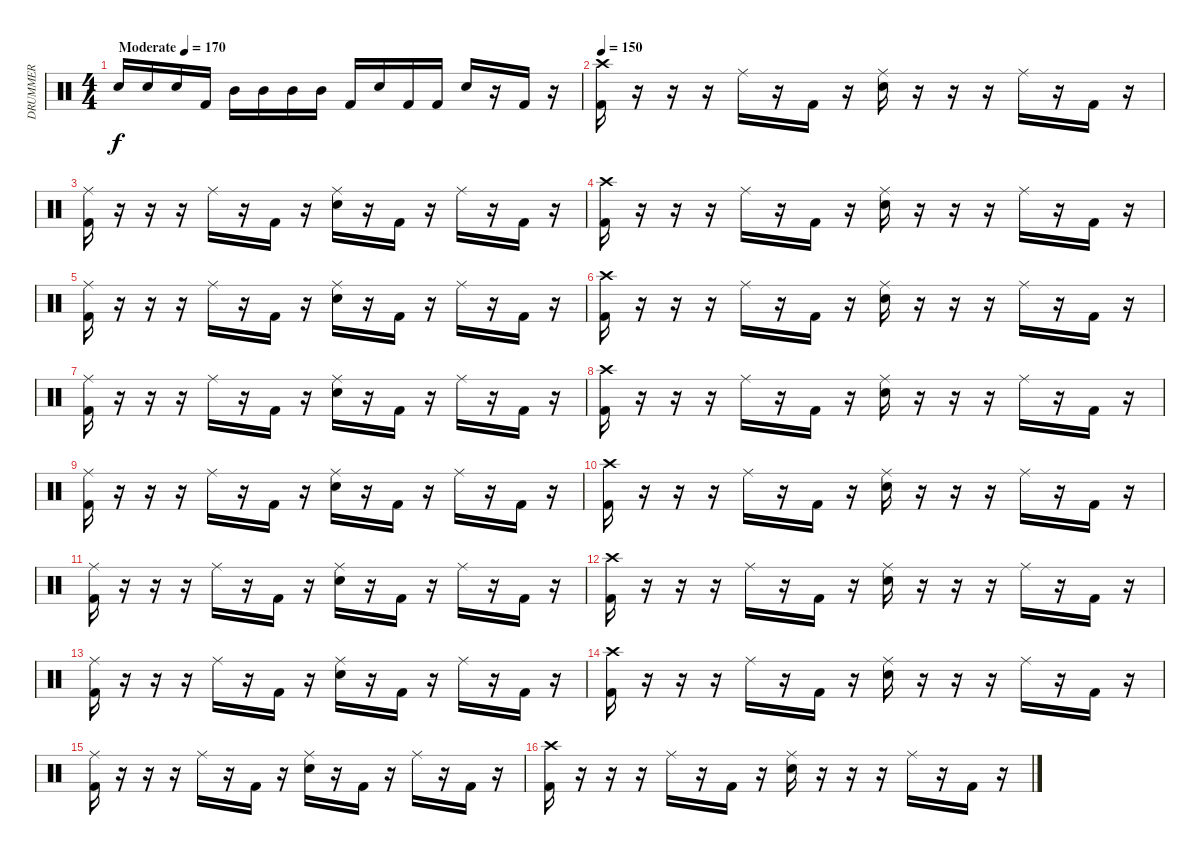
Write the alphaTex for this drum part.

\track ("DRUMMER" "DRUMMER") {instrument percussion}
\staff {score}
\articulation defaults
\ts (4 4)
\tempo (170 "Moderate")
\clef neutral
\ks c "Electric Snare (hit)".16{dy f} "Electric Snare (hit)".16 "Electric Snare (hit)".16 "Kick (hit) 2".16 "Mid Tom (hit)".16 "Mid Tom (hit)".16 "Mid Tom (hit)".16 "Mid Tom (hit)".16 "Kick (hit) 2".16 "Electric Snare (hit)".16 "Kick (hit) 2".16 "Kick (hit) 2".16 "Electric Snare (hit)".16
r.16 "Kick (hit) 2".16 r.16 |
\tempo 150
("Crash high (hit)" "Kick (hit) 2").16 r.16 r.16 r.16 "Ride (middle)".16 r.16 "Kick (hit) 2".16 r.16 ("Ride (middle)" "Electric Snare (hit)").16 r.16 r.16 r.16 "Ride (middle)".16 r.16 "Kick (hit) 2".16 r.16 |
("Ride (middle)" "Kick (hit) 2").16 r.16 r.16 r.16 "Ride (middle)".16 r.16 "Kick (hit) 2".16 r.16 ("Ride (middle)" "Electric Snare (hit)").16 r.16 "Kick (hit) 2".16 r.16 "Ride (middle)".16 r.16 "Kick (hit) 2".16 r.16 |
("Crash high (hit)" "Kick (hit) 2").16 r.16 r.16 r.16 "Ride (middle)".16 r.16 "Kick (hit) 2".16 r.16 ("Ride (middle)" "Electric Snare (hit)").16 r.16 r.16 r.16 "Ride (middle)".16 r.16 "Kick (hit) 2".16 r.16 |
("Ride (middle)" "Kick (hit) 2").16 r.16 r.16 r.16 "Ride (middle)".16 r.16 "Kick (hit) 2".16 r.16 ("Ride (middle)" "Electric Snare (hit)").16 r.16 "Kick (hit) 2".16 r.16 "Ride (middle)".16 r.16 "Kick (hit) 2".16 r.16 |
("Crash high (hit)" "Kick (hit) 2").16 r.16 r.16 r.16 "Ride (middle)".16 r.16 "Kick (hit) 2".16 r.16 ("Ride (middle)" "Electric Snare (hit)").16 r.16 r.16 r.16 "Ride (middle)".16 r.16 "Kick (hit) 2".16 r.16 |
("Ride (middle)" "Kick (hit) 2").16 r.16 r.16 r.16 "Ride (middle)".16 r.16 "Kick (hit) 2".16 r.16 ("Ride (middle)" "Electric Snare (hit)").16 r.16 "Kick (hit) 2".16 r.16 "Ride (middle)".16 r.16 "Kick (hit) 2".16 r.16 |
("Crash high (hit)" "Kick (hit) 2").16 r.16 r.16 r.16 "Ride (middle)".16 r.16 "Kick (hit) 2".16 r.16 ("Ride (middle)" "Electric Snare (hit)").16 r.16 r.16 r.16 "Ride (middle)".16 r.16 "Kick (hit) 2".16 r.16 |
("Ride (middle)" "Kick (hit) 2").16 r.16 r.16 r.16 "Ride (middle)".16 r.16 "Kick (hit) 2".16 r.16 ("Ride (middle)" "Electric Snare (hit)").16 r.16 "Kick (hit) 2".16 r.16 "Ride (middle)".16 r.16 "Kick (hit) 2".16 r.16 |
("Crash high (hit)" "Kick (hit) 2").16 r.16 r.16 r.16 "Ride (middle)".16 r.16 "Kick (hit) 2".16 r.16 ("Ride (middle)" "Electric Snare (hit)").16 r.16 r.16 r.16 "Ride (middle)".16 r.16 "Kick (hit) 2".16 r.16 |
("Ride (middle)" "Kick (hit) 2").16 r.16 r.16 r.16 "Ride (middle)".16 r.16 "Kick (hit) 2".16 r.16 ("Ride (middle)" "Electric Snare (hit)").16 r.16 "Kick (hit) 2".16 r.16 "Ride (middle)".16 r.16 "Kick (hit) 2".16 r.16 |
("Crash high (hit)" "Kick (hit) 2").16 r.16 r.16 r.16 "Ride (middle)".16 r.16 "Kick (hit) 2".16 r.16 ("Ride (middle)" "Electric Snare (hit)").16 r.16 r.16 r.16 "Ride (middle)".16 r.16 "Kick (hit) 2".16 r.16 |
("Ride (middle)" "Kick (hit) 2").16 r.16 r.16 r.16 "Ride (middle)".16 r.16 "Kick (hit) 2".16 r.16 ("Ride (middle)" "Electric Snare (hit)").16 r.16 "Kick (hit) 2".16 r.16 "Ride (middle)".16 r.16 "Kick (hit) 2".16 r.16 |
("Crash high (hit)" "Kick (hit) 2").16 r.16 r.16 r.16 "Ride (middle)".16 r.16 "Kick (hit) 2".16 r.16 ("Ride (middle)" "Electric Snare (hit)").16 r.16 r.16 r.16 "Ride (middle)".16 r.16 "Kick (hit) 2".16 r.16 |
("Ride (middle)" "Kick (hit) 2").16 r.16 r.16 r.16 "Ride (middle)".16 r.16 "Kick (hit) 2".16 r.16 ("Ride (middle)" "Electric Snare (hit)").16 r.16 "Kick (hit) 2".16 r.16 "Ride (middle)".16 r.16 "Kick (hit) 2".16 r.16 |
("Crash high (hit)" "Kick (hit) 2").16 r.16 r.16 r.16 "Ride (middle)".16 r.16 "Kick (hit) 2".16 r.16 ("Ride (middle)" "Electric Snare (hit)").16 r.16 r.16 r.16 "Ride (middle)".16 r.16 "Kick (hit) 2".16 r.16
